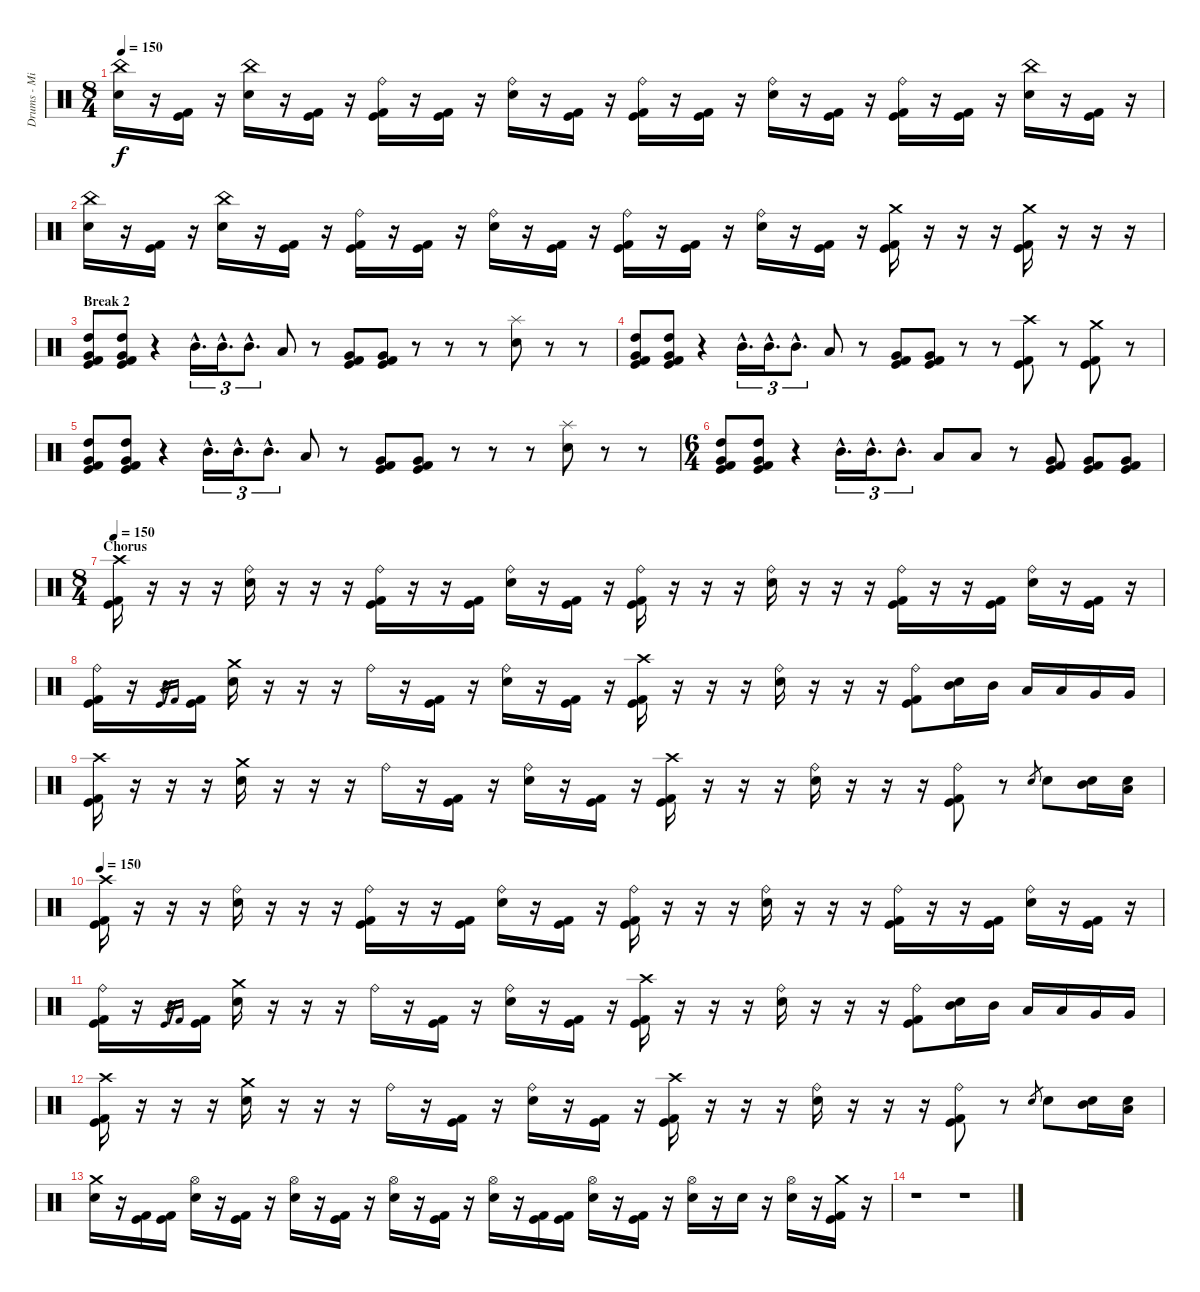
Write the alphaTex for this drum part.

\track ("Drums - Mikkey Dee" "Drums - Mi") {instrument percussion}
\staff {score}
\articulation defaults
\ts (8 4)
\tempo 150
\clef neutral
\ks c
("China (hit)" "Electric Snare (hit)").16{dy f} r.16 ("Kick (hit)" "Kick (hit) 2").16 r.16 ("China (hit)" "Electric Snare (hit)").16 r.16 ("Kick (hit)" "Kick (hit) 2").16 r.16 ("Ride (bell)" "Kick (hit)" "Kick (hit) 2").16 r.16 ("Kick (hit)" "Kick (hit) 2").16 r.16 ("Ride (bell)" "Electric Snare (hit)").16 r.16 ("Kick (hit)" "Kick (hit) 2").16 r.16 ("Ride (bell)" "Kick (hit)" "Kick (hit) 2").16 r.16 ("Kick (hit)" "Kick (hit) 2").16 r.16 ("Ride (bell)" "Electric Snare (hit)").16 r.16 ("Kick (hit)" "Kick (hit) 2").16 r.16 ("Ride (bell)" "Kick (hit)" "Kick (hit) 2").16 r.16 ("Kick (hit)" "Kick (hit) 2").16 r.16 ("China (hit)" "Electric Snare (hit)").16 r.16 ("Kick (hit)" "Kick (hit) 2").16 r.16 |
("China (hit)" "Electric Snare (hit)").16 r.16 ("Kick (hit)" "Kick (hit) 2").16 r.16 ("China (hit)" "Electric Snare (hit)").16 r.16 ("Kick (hit)" "Kick (hit) 2").16 r.16 ("Ride (bell)" "Kick (hit)" "Kick (hit) 2").16 r.16 ("Kick (hit)" "Kick (hit) 2").16 r.16 ("Ride (bell)" "Electric Snare (hit)").16 r.16 ("Kick (hit)" "Kick (hit) 2").16 r.16 ("Ride (bell)" "Kick (hit)" "Kick (hit) 2").16 r.16 ("Kick (hit)" "Kick (hit) 2").16 r.16 ("Ride (bell)" "Electric Snare (hit)").16 r.16 ("Kick (hit)" "Kick (hit) 2").16 r.16 ("Crash medium (hit)" "Kick (hit)" "Kick (hit) 2").16 r.16 r.16 r.16 ("Crash medium (hit)" "Kick (hit)" "Kick (hit) 2").16 r.16 r.16 r.16 |
\section ("" "Break 2")
("High Tom (hit)" "Very Low Tom (hit)" "Kick (hit)" "Kick (hit) 2").8 ("High Tom (hit)" "Very Low Tom (hit)" "Kick (hit)" "Kick (hit) 2").8 r.4 "Mid Tom (hit)"{hac}.16{d tu (3 2)} "Mid Tom (hit)"{hac}.16{d tu (3 2)} "Mid Tom (hit)"{hac}.8{d tu (3 2)} "Low Tom (hit)".8 r.8 ("Very Low Tom (hit)" "Kick (hit)" "Kick (hit) 2").8 ("Very Low Tom (hit)" "Kick (hit)" "Kick (hit) 2").8 r.8 r.8 r.8 ("Splash (hit)" "Electric Snare (hit)").8 r.8 r.8 |
("High Tom (hit)" "Very Low Tom (hit)" "Kick (hit)" "Kick (hit) 2").8 ("High Tom (hit)" "Very Low Tom (hit)" "Kick (hit)" "Kick (hit) 2").8 r.4 "Mid Tom (hit)"{hac}.16{d tu (3 2)} "Mid Tom (hit)"{hac}.16{d tu (3 2)} "Mid Tom (hit)"{hac}.8{d tu (3 2)} "Low Tom (hit)".8 r.8 ("Very Low Tom (hit)" "Kick (hit)" "Kick (hit) 2").8 ("Very Low Tom (hit)" "Kick (hit)" "Kick (hit) 2").8 r.8 r.8 ("Crash high (hit)" "Kick (hit)" "Kick (hit) 2").8 r.8 ("Crash medium (hit)" "Kick (hit)" "Kick (hit) 2").8 r.8 |
("High Tom (hit)" "Very Low Tom (hit)" "Kick (hit)" "Kick (hit) 2").8 ("High Tom (hit)" "Very Low Tom (hit)" "Kick (hit)" "Kick (hit) 2").8 r.4 "Mid Tom (hit)"{hac}.16{d tu (3 2)} "Mid Tom (hit)"{hac}.16{d tu (3 2)} "Mid Tom (hit)"{hac}.8{d tu (3 2)} "Low Tom (hit)".8 r.8 ("Very Low Tom (hit)" "Kick (hit)" "Kick (hit) 2").8 ("Very Low Tom (hit)" "Kick (hit)" "Kick (hit) 2").8 r.8 r.8 r.8 ("Splash (hit)" "Electric Snare (hit)").8 r.8 r.8 |
\ts (6 4)
("High Tom (hit)" "Very Low Tom (hit)" "Kick (hit)" "Kick (hit) 2").8 ("High Tom (hit)" "Very Low Tom (hit)" "Kick (hit)" "Kick (hit) 2").8 r.4 "Mid Tom (hit)"{hac}.16{d tu (3 2)} "Mid Tom (hit)"{hac}.16{d tu (3 2)} "Mid Tom (hit)"{hac}.8{d tu (3 2)} "Low Tom (hit)".8 "Low Tom (hit)".8 r.8 ("Very Low Tom (hit)" "Kick (hit)" "Kick (hit) 2").8 ("Very Low Tom (hit)" "Kick (hit)" "Kick (hit) 2").8 ("Very Low Tom (hit)" "Kick (hit)" "Kick (hit) 2").8 |
\ts (8 4)
\section ("" "Chorus")
\tempo 150
("Crash high (hit)" "Kick (hit)" "Kick (hit) 2").16 r.16 r.16 r.16 ("Ride (bell)" "Electric Snare (hit)").16 r.16 r.16 r.16 ("Ride (bell)" "Kick (hit)" "Kick (hit) 2").16 r.16 r.16 ("Kick (hit)" "Kick (hit) 2").16 ("Ride (bell)" "Electric Snare (hit)").16 r.16 ("Kick (hit)" "Kick (hit) 2").16 r.16 ("Ride (bell)" "Kick (hit)" "Kick (hit) 2").16 r.16 r.16 r.16 ("Ride (bell)" "Electric Snare (hit)").16 r.16 r.16 r.16 ("Ride (bell)" "Kick (hit)" "Kick (hit) 2").16 r.16 r.16 ("Kick (hit)" "Kick (hit) 2").16 ("Ride (bell)" "Electric Snare (hit)").16 r.16 ("Kick (hit)" "Kick (hit) 2").16 r.16 |
("Ride (bell)" "Kick (hit)" "Kick (hit) 2").16 r.16 r.16 "Kick (hit)".16{gr} "Kick (hit) 2".16{gr} ("Kick (hit)" "Kick (hit) 2").16 ("Crash medium (hit)" "Electric Snare (hit)").16 r.16 r.16 r.16 "Ride (bell)".16 r.16 ("Kick (hit)" "Kick (hit) 2").16 r.16 ("Ride (bell)" "Electric Snare (hit)").16 r.16 ("Kick (hit)" "Kick (hit) 2").16 r.16 ("Crash high (hit)" "Kick (hit)" "Kick (hit) 2").16 r.16 r.16 r.16 ("Ride (bell)" "Electric Snare (hit)").16 r.16 r.16 r.16 ("Ride (bell)" "Kick (hit)" "Kick (hit) 2").8 ("Mid Tom (hit)" "Electric Snare (hit)").16 "Mid Tom (hit)".16 "Low Tom (hit)".16 "Low Tom (hit)".16 "Very Low Tom (hit)".16 "Very Low Tom (hit)".16 |
("Crash high (hit)" "Kick (hit)" "Kick (hit) 2").16 r.16 r.16 r.16 ("Crash medium (hit)" "Electric Snare (hit)").16 r.16 r.16 r.16 "Ride (bell)".16 r.16 ("Kick (hit)" "Kick (hit) 2").16 r.16 ("Ride (bell)" "Electric Snare (hit)").16 r.16 ("Kick (hit)" "Kick (hit) 2").16 r.16 ("Crash high (hit)" "Kick (hit)" "Kick (hit) 2").16 r.16 r.16 r.16 ("Ride (bell)" "Electric Snare (hit)").16 r.16 r.16 r.16 ("Ride (bell)" "Kick (hit)" "Kick (hit) 2").8 r.8 "Electric Snare (hit)".8{gr} "Electric Snare (hit)".8 ("Mid Tom (hit)" "Electric Snare (hit)").16 ("Low Tom (hit)" "Electric Snare (hit)").16 |
\tempo 150
("Crash high (hit)" "Kick (hit)" "Kick (hit) 2").16 r.16 r.16 r.16 ("Ride (bell)" "Electric Snare (hit)").16 r.16 r.16 r.16 ("Ride (bell)" "Kick (hit)" "Kick (hit) 2").16 r.16 r.16 ("Kick (hit)" "Kick (hit) 2").16 ("Ride (bell)" "Electric Snare (hit)").16 r.16 ("Kick (hit)" "Kick (hit) 2").16 r.16 ("Ride (bell)" "Kick (hit)" "Kick (hit) 2").16 r.16 r.16 r.16 ("Ride (bell)" "Electric Snare (hit)").16 r.16 r.16 r.16 ("Ride (bell)" "Kick (hit)" "Kick (hit) 2").16 r.16 r.16 ("Kick (hit)" "Kick (hit) 2").16 ("Ride (bell)" "Electric Snare (hit)").16 r.16 ("Kick (hit)" "Kick (hit) 2").16 r.16 |
("Ride (bell)" "Kick (hit)" "Kick (hit) 2").16 r.16 r.16 "Kick (hit)".16{gr} "Kick (hit) 2".16{gr} ("Kick (hit)" "Kick (hit) 2").16 ("Crash medium (hit)" "Electric Snare (hit)").16 r.16 r.16 r.16 "Ride (bell)".16 r.16 ("Kick (hit)" "Kick (hit) 2").16 r.16 ("Ride (bell)" "Electric Snare (hit)").16 r.16 ("Kick (hit)" "Kick (hit) 2").16 r.16 ("Crash high (hit)" "Kick (hit)" "Kick (hit) 2").16 r.16 r.16 r.16 ("Ride (bell)" "Electric Snare (hit)").16 r.16 r.16 r.16 ("Ride (bell)" "Kick (hit)" "Kick (hit) 2").8 ("Mid Tom (hit)" "Electric Snare (hit)").16 "Mid Tom (hit)".16 "Low Tom (hit)".16 "Low Tom (hit)".16 "Very Low Tom (hit)".16 "Very Low Tom (hit)".16 |
("Crash high (hit)" "Kick (hit)" "Kick (hit) 2").16 r.16 r.16 r.16 ("Crash medium (hit)" "Electric Snare (hit)").16 r.16 r.16 r.16 "Ride (bell)".16 r.16 ("Kick (hit)" "Kick (hit) 2").16 r.16 ("Ride (bell)" "Electric Snare (hit)").16 r.16 ("Kick (hit)" "Kick (hit) 2").16 r.16 ("Crash high (hit)" "Kick (hit)" "Kick (hit) 2").16 r.16 r.16 r.16 ("Ride (bell)" "Electric Snare (hit)").16 r.16 r.16 r.16 ("Ride (bell)" "Kick (hit)" "Kick (hit) 2").8 r.8 "Electric Snare (hit)".8{gr} "Electric Snare (hit)".8 ("Mid Tom (hit)" "Electric Snare (hit)").16 ("Low Tom (hit)" "Electric Snare (hit)").16 |
("Crash medium (hit)" "Electric Snare (hit)").16 r.16 ("Kick (hit)" "Kick (hit) 2").16 ("Kick (hit)" "Kick (hit) 2").16 ("Hi-Hat (open)" "Electric Snare (hit)").16 r.16 ("Kick (hit)" "Kick (hit) 2").16 r.16 ("Hi-Hat (open)" "Electric Snare (hit)").16 r.16 ("Kick (hit)" "Kick (hit) 2").16 r.16 ("Hi-Hat (open)" "Electric Snare (hit)").16 r.16 ("Kick (hit)" "Kick (hit) 2").16 r.16 ("Hi-Hat (open)" "Electric Snare (hit)").16 r.16 ("Kick (hit)" "Kick (hit) 2").16 ("Kick (hit)" "Kick (hit) 2").16 ("Hi-Hat (open)" "Electric Snare (hit)").16 r.16 ("Kick (hit)" "Kick (hit) 2").16 r.16 ("Hi-Hat (open)" "Electric Snare (hit)").16 r.16 "Electric Snare (hit)".16 r.16 ("Hi-Hat (open)" "Electric Snare (hit)").16 r.16 ("Crash medium (hit)" "Kick (hit)" "Kick (hit) 2").16 r.16 |
r.1 r.1
